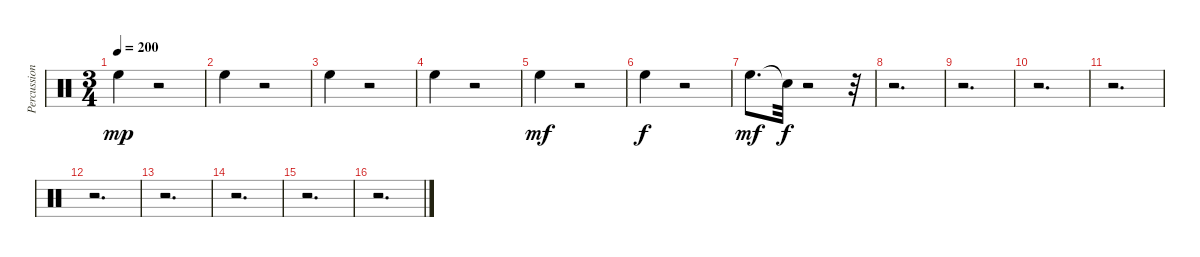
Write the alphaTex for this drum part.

\track ("Percussion." "Percussion") {instrument percussion}
\staff {score}
\articulation defaults
\ts (3 4)
\tempo 200
\clef neutral
\ks c "High Floor Tom (hit)".4{dy mp}
r.2 |
"High Floor Tom (hit)".4 r.2 |
"High Floor Tom (hit)".4 r.2 |
"High Floor Tom (hit)".4 r.2 |
"High Floor Tom (hit)".4{dy mf} r.2 |
"High Floor Tom (hit)".4{dy f} r.2 |
"High Floor Tom (hit)".8{d dy mf} "Snare (hit)"{t}.32{dy f} r.2 r.32 |
r.2{d} |
r.2{d} |
r.2{d} |
r.2{d} |
r.2{d} |
r.2{d} |
r.2{d} |
r.2{d} |
r.2{d}
